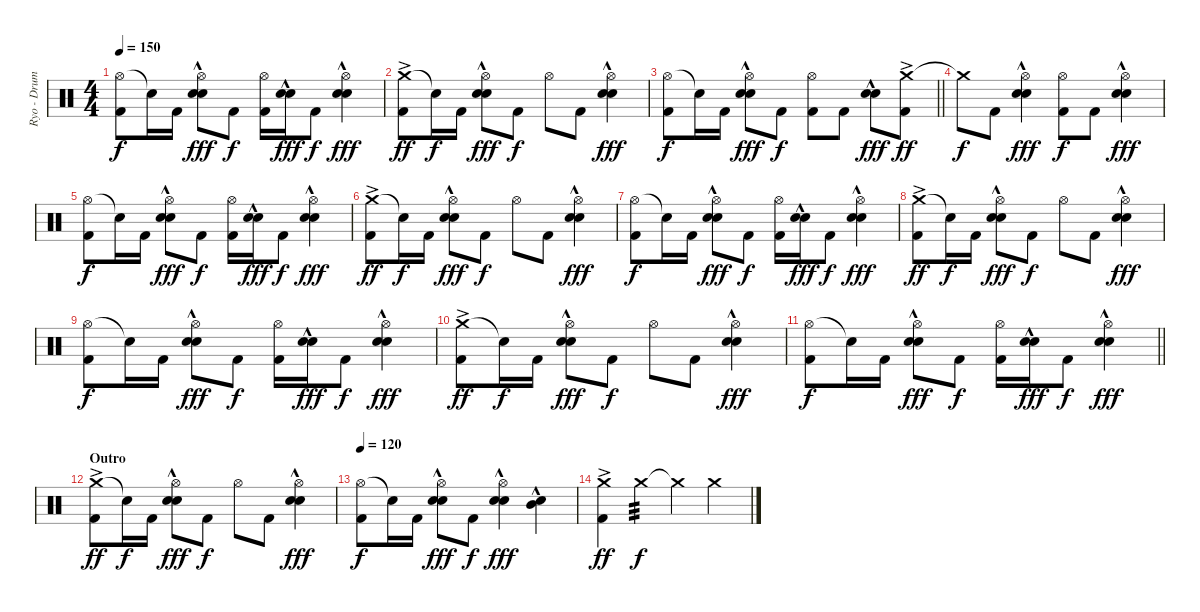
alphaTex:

\track ("Ryo - Drums" "Ryo - Drum") {instrument percussion}
\staff {score}
\articulation defaults
\ts (4 4)
\tempo 150
\clef neutral
\ks c
("Hi-Hat (open)" "Kick (hit) 2").8{dy f} "Snare (hit)"{t}.16 "Kick (hit) 2".16 ("Hi-Hat (open)" "Electric Snare (hit)"{hac} "Snare (hit) 2"{hac}).8{dy fff} "Kick (hit) 2".8{dy f} ("Hi-Hat (open)" "Kick (hit) 2").16 ("Electric Snare (hit)"{hac} "Snare (hit) 2"{hac}).16{dy fff} "Kick (hit) 2".8{dy f} ("Hi-Hat (open)" "Electric Snare (hit)"{hac} "Snare (hit) 2"{hac}).4{dy fff} |
("Crash medium (hit)"{ac} "Kick (hit) 2").8{dy ff} "Snare (hit)"{t}.16{dy f} "Kick (hit) 2".16 ("Hi-Hat (open)" "Electric Snare (hit)"{hac} "Snare (hit) 2"{hac}).8{dy fff} "Kick (hit) 2".8{dy f} "Hi-Hat (open)".8 "Kick (hit) 2".8 ("Hi-Hat (open)" "Electric Snare (hit)"{hac} "Snare (hit) 2"{hac}).4{dy fff} |
\barLineRight lightlight
("Hi-Hat (open)" "Kick (hit) 2").8{dy f} "Snare (hit)"{t}.16 "Kick (hit) 2".16 ("Hi-Hat (open)" "Electric Snare (hit)"{hac} "Snare (hit) 2"{hac}).8{dy fff} "Kick (hit) 2".8{dy f} ("Hi-Hat (open)" "Kick (hit) 2").8 "Kick (hit) 2".8 ("Electric Snare (hit)"{hac} "Snare (hit) 2"{hac}).8{dy fff} ("Crash medium (hit)"{ac} "Kick (hit) 2").8{dy ff} |
\section ("" "")
"Crash medium (hit)"{t}.8{dy f} "Kick (hit) 2".8 ("Hi-Hat (open)" "Electric Snare (hit)"{hac} "Snare (hit) 2"{hac}).4{dy fff} ("Hi-Hat (open)" "Kick (hit) 2").8{dy f} "Kick (hit) 2".8 ("Hi-Hat (open)" "Electric Snare (hit)"{hac} "Snare (hit) 2"{hac}).4{dy fff} |
("Hi-Hat (open)" "Kick (hit) 2").8{dy f} "Snare (hit)"{t}.16 "Kick (hit) 2".16 ("Hi-Hat (open)" "Electric Snare (hit)"{hac} "Snare (hit) 2"{hac}).8{dy fff} "Kick (hit) 2".8{dy f} ("Hi-Hat (open)" "Kick (hit) 2").16 ("Electric Snare (hit)"{hac} "Snare (hit) 2"{hac}).16{dy fff} "Kick (hit) 2".8{dy f} ("Hi-Hat (open)" "Electric Snare (hit)"{hac} "Snare (hit) 2"{hac}).4{dy fff} |
("Crash medium (hit)"{ac} "Kick (hit) 2").8{dy ff} "Snare (hit)"{t}.16{dy f} "Kick (hit) 2".16 ("Hi-Hat (open)" "Electric Snare (hit)"{hac} "Snare (hit) 2"{hac}).8{dy fff} "Kick (hit) 2".8{dy f} "Hi-Hat (open)".8 "Kick (hit) 2".8 ("Hi-Hat (open)" "Electric Snare (hit)"{hac} "Snare (hit) 2"{hac}).4{dy fff} |
("Hi-Hat (open)" "Kick (hit) 2").8{dy f} "Snare (hit)"{t}.16 "Kick (hit) 2".16 ("Hi-Hat (open)" "Electric Snare (hit)"{hac} "Snare (hit) 2"{hac}).8{dy fff} "Kick (hit) 2".8{dy f} ("Hi-Hat (open)" "Kick (hit) 2").16 ("Electric Snare (hit)"{hac} "Snare (hit) 2"{hac}).16{dy fff} "Kick (hit) 2".8{dy f} ("Hi-Hat (open)" "Electric Snare (hit)"{hac} "Snare (hit) 2"{hac}).4{dy fff} |
("Crash medium (hit)"{ac} "Kick (hit) 2").8{dy ff} "Snare (hit)"{t}.16{dy f} "Kick (hit) 2".16 ("Hi-Hat (open)" "Electric Snare (hit)"{hac} "Snare (hit) 2"{hac}).8{dy fff} "Kick (hit) 2".8{dy f} "Hi-Hat (open)".8 "Kick (hit) 2".8 ("Hi-Hat (open)" "Electric Snare (hit)"{hac} "Snare (hit) 2"{hac}).4{dy fff} |
("Hi-Hat (open)" "Kick (hit) 2").8{dy f} "Snare (hit)"{t}.16 "Kick (hit) 2".16 ("Hi-Hat (open)" "Electric Snare (hit)"{hac} "Snare (hit) 2"{hac}).8{dy fff} "Kick (hit) 2".8{dy f} ("Hi-Hat (open)" "Kick (hit) 2").16 ("Electric Snare (hit)"{hac} "Snare (hit) 2"{hac}).16{dy fff} "Kick (hit) 2".8{dy f} ("Hi-Hat (open)" "Electric Snare (hit)"{hac} "Snare (hit) 2"{hac}).4{dy fff} |
("Crash medium (hit)"{ac} "Kick (hit) 2").8{dy ff} "Snare (hit)"{t}.16{dy f} "Kick (hit) 2".16 ("Hi-Hat (open)" "Electric Snare (hit)"{hac} "Snare (hit) 2"{hac}).8{dy fff} "Kick (hit) 2".8{dy f} "Hi-Hat (open)".8 "Kick (hit) 2".8 ("Hi-Hat (open)" "Electric Snare (hit)"{hac} "Snare (hit) 2"{hac}).4{dy fff} |
\barLineRight lightlight
("Hi-Hat (open)" "Kick (hit) 2").8{dy f} "Snare (hit)"{t}.16 "Kick (hit) 2".16 ("Hi-Hat (open)" "Electric Snare (hit)"{hac} "Snare (hit) 2"{hac}).8{dy fff} "Kick (hit) 2".8{dy f} ("Hi-Hat (open)" "Kick (hit) 2").16 ("Electric Snare (hit)"{hac} "Snare (hit) 2"{hac}).16{dy fff} "Kick (hit) 2".8{dy f} ("Hi-Hat (open)" "Electric Snare (hit)"{hac} "Snare (hit) 2"{hac}).4{dy fff} |
\section ("" "Outro")
("Crash medium (hit)"{ac} "Kick (hit) 2").8{dy ff} "Snare (hit)"{t}.16{dy f} "Kick (hit) 2".16 ("Hi-Hat (open)" "Electric Snare (hit)"{hac} "Snare (hit) 2"{hac}).8{dy fff} "Kick (hit) 2".8{dy f} "Hi-Hat (open)".8 "Kick (hit) 2".8 ("Hi-Hat (open)" "Electric Snare (hit)"{hac} "Snare (hit) 2"{hac}).4{dy fff} |
\tempo 120
("Hi-Hat (open)" "Kick (hit) 2").8{dy f} "Snare (hit)"{t}.16 "Kick (hit) 2".16 ("Hi-Hat (open)" "Electric Snare (hit)"{hac} "Snare (hit) 2"{hac}).8{dy fff} "Kick (hit) 2".8{dy f} ("Hi-Hat (open)" "Electric Snare (hit)" "Snare (hit) 2"{hac}).4{dy fff} ("Electric Snare (hit)"{hac} "Mid Tom (hit)"{hac}).4 |
("Crash medium (hit)"{ac} "Kick (hit) 2").4{dy ff} "Crash medium (hit)".4{tp 3 dy f} "Crash medium (hit)"{t}.4 "Crash medium (hit)".4
